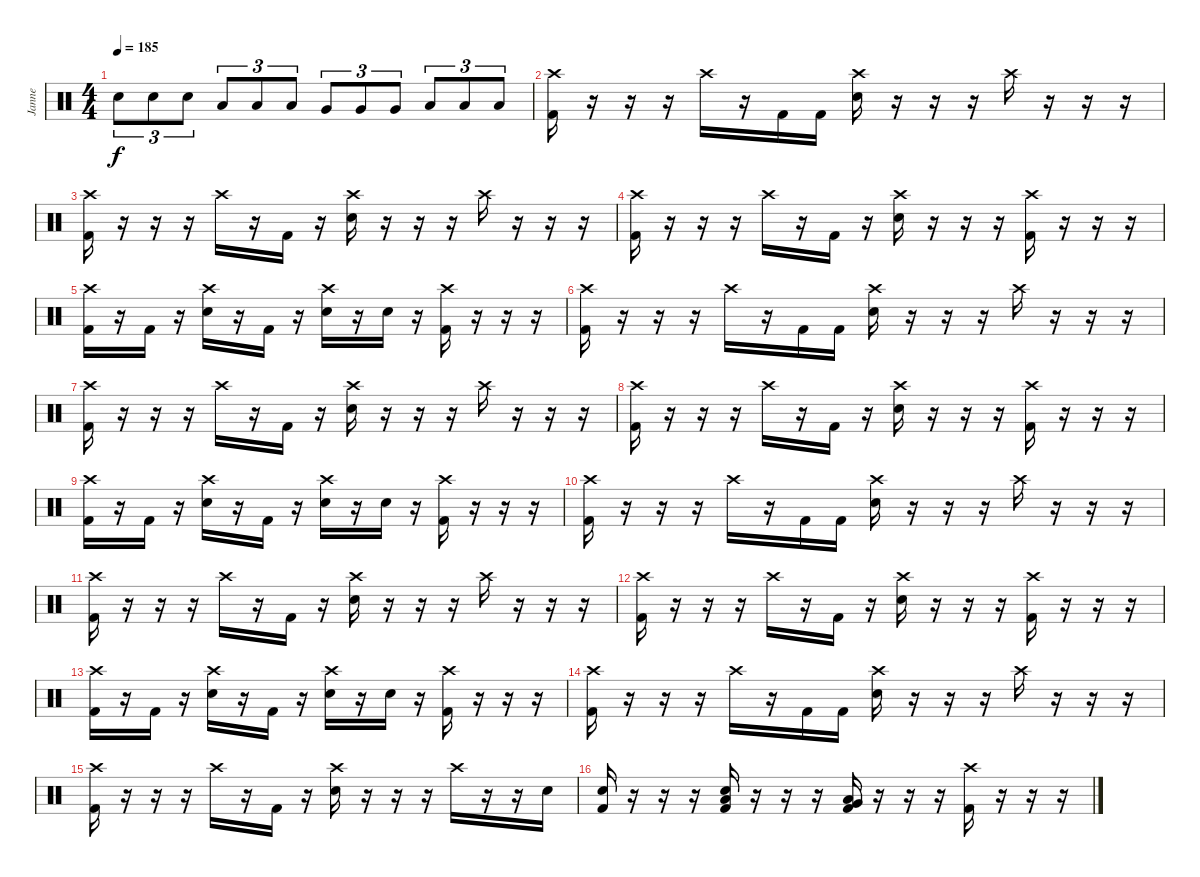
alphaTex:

\track ("Janne" "Janne") {instrument percussion}
\staff {score}
\articulation defaults
\ts (4 4)
\tempo 185
\clef neutral
\ks c "Electric Snare (hit)".8{tu (3 2) dy f} "Electric Snare (hit)".8{tu (3 2)} "Electric Snare (hit)".8{tu (3 2)} "Low Tom (hit)".8{tu (3 2)} "Low Tom (hit)".8{tu (3 2)} "Low Tom (hit)".8{tu (3 2)} "Very Low Tom (hit)".8{tu (3 2)} "Very Low Tom (hit)".8{tu (3 2)} "Very Low Tom (hit)".8{tu (3 2)} "Low Floor Tom (hit)".8{tu (3 2)} "Low Floor Tom (hit)".8{tu (3 2)} "Low Floor Tom (hit)".8{tu (3 2)}
|
("Crash high (hit)" "Kick (hit) 2").16 r.16 r.16 r.16 "Crash high (hit)".16 r.16 "Kick (hit) 2".16 "Kick (hit) 2".16 ("Crash high (hit)" "Electric Snare (hit)").16 r.16 r.16 r.16 "Crash high (hit)".16 r.16 r.16 r.16 |
("Crash high (hit)" "Kick (hit) 2").16 r.16 r.16 r.16 "Crash high (hit)".16 r.16 "Kick (hit) 2".16 r.16 ("Crash high (hit)" "Electric Snare (hit)").16 r.16 r.16 r.16 "Crash high (hit)".16 r.16 r.16 r.16 |
("Crash high (hit)" "Kick (hit) 2").16 r.16 r.16 r.16 "Crash high (hit)".16 r.16 "Kick (hit) 2".16 r.16 ("Crash high (hit)" "Electric Snare (hit)").16 r.16 r.16 r.16 ("Crash high (hit)" "Kick (hit) 2").16 r.16 r.16 r.16 |
("Crash high (hit)" "Kick (hit) 2").16 r.16 "Kick (hit) 2".16 r.16 ("Crash high (hit)" "Electric Snare (hit)").16 r.16 "Kick (hit) 2".16 r.16 ("Crash high (hit)" "Electric Snare (hit)").16 r.16 "Electric Snare (hit)".16 r.16 ("Crash high (hit)" "Kick (hit) 2").16 r.16 r.16 r.16 |
("Crash high (hit)" "Kick (hit) 2").16 r.16 r.16 r.16 "Crash high (hit)".16 r.16 "Kick (hit) 2".16 "Kick (hit) 2".16 ("Crash high (hit)" "Electric Snare (hit)").16 r.16 r.16 r.16 "Crash high (hit)".16 r.16 r.16 r.16 |
("Crash high (hit)" "Kick (hit) 2").16 r.16 r.16 r.16 "Crash high (hit)".16 r.16 "Kick (hit) 2".16 r.16 ("Crash high (hit)" "Electric Snare (hit)").16 r.16 r.16 r.16 "Crash high (hit)".16 r.16 r.16 r.16 |
("Crash high (hit)" "Kick (hit) 2").16 r.16 r.16 r.16 "Crash high (hit)".16 r.16 "Kick (hit) 2".16 r.16 ("Crash high (hit)" "Electric Snare (hit)").16 r.16 r.16 r.16 ("Crash high (hit)" "Kick (hit) 2").16 r.16 r.16 r.16 |
("Crash high (hit)" "Kick (hit) 2").16 r.16 "Kick (hit) 2".16 r.16 ("Crash high (hit)" "Electric Snare (hit)").16 r.16 "Kick (hit) 2".16 r.16 ("Crash high (hit)" "Electric Snare (hit)").16 r.16 "Electric Snare (hit)".16 r.16 ("Crash high (hit)" "Kick (hit) 2").16 r.16 r.16 r.16 |
("Crash high (hit)" "Kick (hit) 2").16 r.16 r.16 r.16 "Crash high (hit)".16 r.16 "Kick (hit) 2".16 "Kick (hit) 2".16 ("Crash high (hit)" "Electric Snare (hit)").16 r.16 r.16 r.16 "Crash high (hit)".16 r.16 r.16 r.16 |
("Crash high (hit)" "Kick (hit) 2").16 r.16 r.16 r.16 "Crash high (hit)".16 r.16 "Kick (hit) 2".16 r.16 ("Crash high (hit)" "Electric Snare (hit)").16 r.16 r.16 r.16 "Crash high (hit)".16 r.16 r.16 r.16 |
("Crash high (hit)" "Kick (hit) 2").16 r.16 r.16 r.16 "Crash high (hit)".16 r.16 "Kick (hit) 2".16 r.16 ("Crash high (hit)" "Electric Snare (hit)").16 r.16 r.16 r.16 ("Crash high (hit)" "Kick (hit) 2").16 r.16 r.16 r.16 |
("Crash high (hit)" "Kick (hit) 2").16 r.16 "Kick (hit) 2".16 r.16 ("Crash high (hit)" "Electric Snare (hit)").16 r.16 "Kick (hit) 2".16 r.16 ("Crash high (hit)" "Electric Snare (hit)").16 r.16 "Electric Snare (hit)".16 r.16 ("Crash high (hit)" "Kick (hit) 2").16 r.16 r.16 r.16 |
("Crash high (hit)" "Kick (hit) 2").16 r.16 r.16 r.16 "Crash high (hit)".16 r.16 "Kick (hit) 2".16 "Kick (hit) 2".16 ("Crash high (hit)" "Electric Snare (hit)").16 r.16 r.16 r.16 "Crash high (hit)".16 r.16 r.16 r.16 |
("Crash high (hit)" "Kick (hit) 2").16 r.16 r.16 r.16 "Crash high (hit)".16 r.16 "Kick (hit) 2".16 r.16 ("Crash high (hit)" "Electric Snare (hit)").16 r.16 r.16 r.16 "Crash high (hit)".16 r.16 r.16 "Electric Snare (hit)".16 |
("Electric Snare (hit)" "Kick (hit) 2").16 r.16 r.16 r.16 ("Electric Snare (hit)" "Low Tom (hit)" "Kick (hit) 2").16 r.16 r.16 r.16 ("Low Tom (hit)" "Very Low Tom (hit)" "Kick (hit) 2").16 r.16 r.16 r.16 ("Crash high (hit)" "Kick (hit) 2").16 r.16 r.16 r.16
